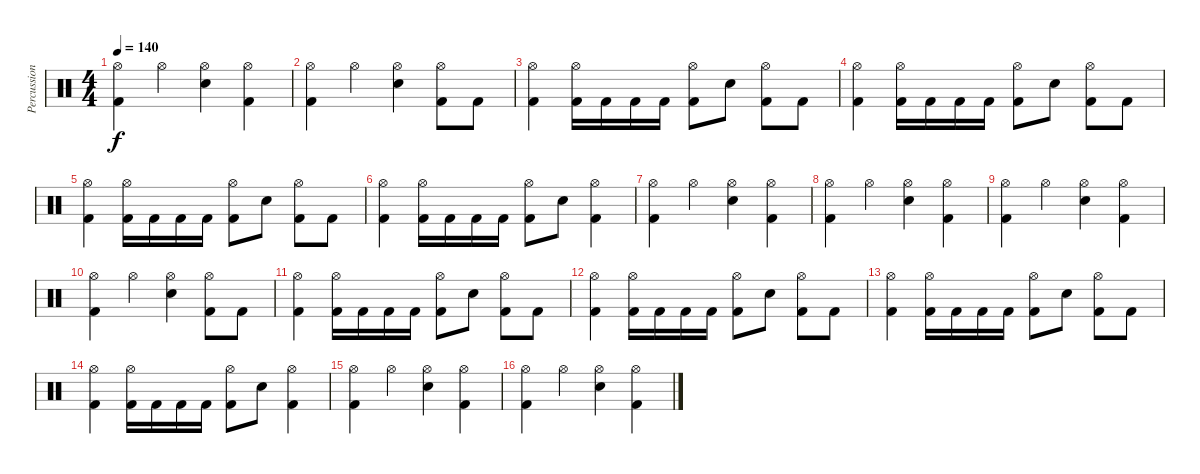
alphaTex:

\track ("Percussion" "Percussion") {instrument percussion}
\staff {score}
\articulation defaults
\ts (4 4)
\tempo 140
\clef neutral
\ks c
("Hi-Hat (open)" "Kick (hit) 2").4{dy f} "Hi-Hat (open)".4 ("Hi-Hat (open)" "Snare (hit) 2").4 ("Hi-Hat (open)" "Kick (hit) 2").4 |
("Hi-Hat (open)" "Kick (hit) 2").4 "Hi-Hat (open)".4 ("Hi-Hat (open)" "Snare (hit) 2").4 ("Hi-Hat (open)" "Kick (hit) 2").8 "Kick (hit) 2".8 |
("Hi-Hat (open)" "Kick (hit) 2").4 ("Hi-Hat (open)" "Kick (hit) 2").16 "Kick (hit) 2".16 "Kick (hit) 2".16 "Kick (hit) 2".16 ("Hi-Hat (open)" "Kick (hit) 2").8 "Snare (hit) 2".8 ("Hi-Hat (open)" "Kick (hit) 2").8 "Kick (hit) 2".8 |
("Hi-Hat (open)" "Kick (hit) 2").4 ("Hi-Hat (open)" "Kick (hit) 2").16 "Kick (hit) 2".16 "Kick (hit) 2".16 "Kick (hit) 2".16 ("Hi-Hat (open)" "Kick (hit) 2").8 "Snare (hit) 2".8 ("Hi-Hat (open)" "Kick (hit) 2").8 "Kick (hit) 2".8 |
("Hi-Hat (open)" "Kick (hit) 2").4 ("Hi-Hat (open)" "Kick (hit) 2").16 "Kick (hit) 2".16 "Kick (hit) 2".16 "Kick (hit) 2".16 ("Hi-Hat (open)" "Kick (hit) 2").8 "Snare (hit) 2".8 ("Hi-Hat (open)" "Kick (hit) 2").8 "Kick (hit) 2".8 |
("Hi-Hat (open)" "Kick (hit) 2").4 ("Hi-Hat (open)" "Kick (hit) 2").16 "Kick (hit) 2".16 "Kick (hit) 2".16 "Kick (hit) 2".16 ("Hi-Hat (open)" "Kick (hit) 2").8 "Snare (hit) 2".8 ("Hi-Hat (open)" "Kick (hit) 2").4 |
("Hi-Hat (open)" "Kick (hit) 2").4 "Hi-Hat (open)".4 ("Hi-Hat (open)" "Snare (hit) 2").4 ("Hi-Hat (open)" "Kick (hit) 2").4 |
("Hi-Hat (open)" "Kick (hit) 2").4 "Hi-Hat (open)".4 ("Hi-Hat (open)" "Snare (hit) 2").4 ("Hi-Hat (open)" "Kick (hit) 2").4 |
("Hi-Hat (open)" "Kick (hit) 2").4 "Hi-Hat (open)".4 ("Hi-Hat (open)" "Snare (hit) 2").4 ("Hi-Hat (open)" "Kick (hit) 2").4 |
("Hi-Hat (open)" "Kick (hit) 2").4 "Hi-Hat (open)".4 ("Hi-Hat (open)" "Snare (hit) 2").4 ("Hi-Hat (open)" "Kick (hit) 2").8 "Kick (hit) 2".8 |
("Hi-Hat (open)" "Kick (hit) 2").4 ("Hi-Hat (open)" "Kick (hit) 2").16 "Kick (hit) 2".16 "Kick (hit) 2".16 "Kick (hit) 2".16 ("Hi-Hat (open)" "Kick (hit) 2").8 "Snare (hit) 2".8 ("Hi-Hat (open)" "Kick (hit) 2").8 "Kick (hit) 2".8 |
("Hi-Hat (open)" "Kick (hit) 2").4 ("Hi-Hat (open)" "Kick (hit) 2").16 "Kick (hit) 2".16 "Kick (hit) 2".16 "Kick (hit) 2".16 ("Hi-Hat (open)" "Kick (hit) 2").8 "Snare (hit) 2".8 ("Hi-Hat (open)" "Kick (hit) 2").8 "Kick (hit) 2".8 |
("Hi-Hat (open)" "Kick (hit) 2").4 ("Hi-Hat (open)" "Kick (hit) 2").16 "Kick (hit) 2".16 "Kick (hit) 2".16 "Kick (hit) 2".16 ("Hi-Hat (open)" "Kick (hit) 2").8 "Snare (hit) 2".8 ("Hi-Hat (open)" "Kick (hit) 2").8 "Kick (hit) 2".8 |
("Hi-Hat (open)" "Kick (hit) 2").4 ("Hi-Hat (open)" "Kick (hit) 2").16 "Kick (hit) 2".16 "Kick (hit) 2".16 "Kick (hit) 2".16 ("Hi-Hat (open)" "Kick (hit) 2").8 "Snare (hit) 2".8 ("Hi-Hat (open)" "Kick (hit) 2").4 |
("Hi-Hat (open)" "Kick (hit) 2").4 "Hi-Hat (open)".4 ("Hi-Hat (open)" "Snare (hit) 2").4 ("Hi-Hat (open)" "Kick (hit) 2").4 |
("Hi-Hat (open)" "Kick (hit) 2").4 "Hi-Hat (open)".4 ("Hi-Hat (open)" "Snare (hit) 2").4 ("Hi-Hat (open)" "Kick (hit) 2").4
